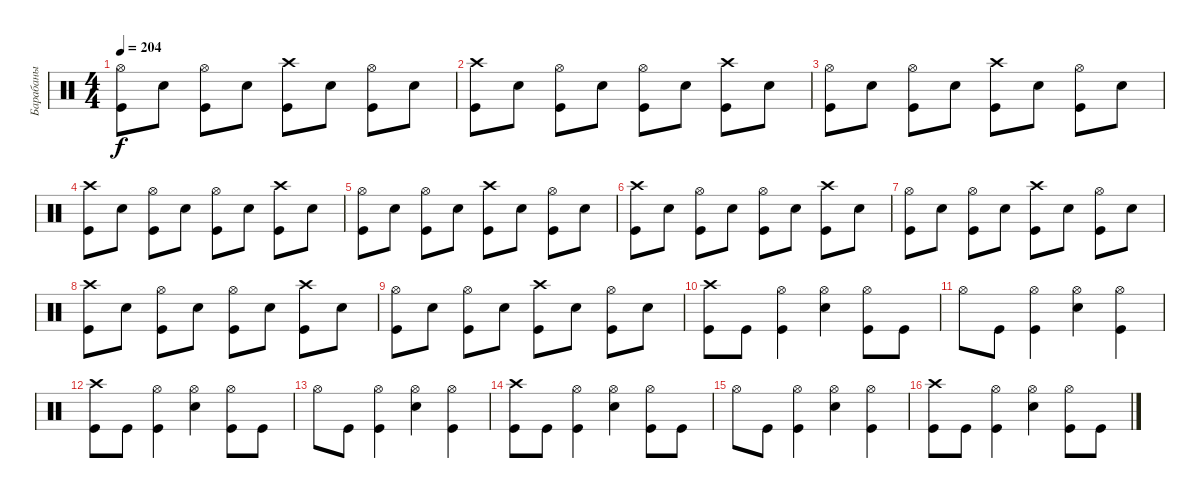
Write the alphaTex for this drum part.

\track ("Барабаны" "Барабаны") {instrument percussion}
\staff {score}
\articulation defaults
\ts (4 4)
\tempo 204
\clef neutral
\ks c
("Hi-Hat (open)" "Kick (hit)").8{dy f} "Electric Snare (hit)".8 ("Hi-Hat (open)" "Kick (hit)").8 "Electric Snare (hit)".8 ("Crash high (hit)" "Kick (hit)").8 "Electric Snare (hit)".8 ("Hi-Hat (open)" "Kick (hit)").8 "Electric Snare (hit)".8 |
("Crash high (hit)" "Kick (hit)").8 "Electric Snare (hit)".8 ("Hi-Hat (open)" "Kick (hit)").8 "Electric Snare (hit)".8 ("Hi-Hat (open)" "Kick (hit)").8 "Electric Snare (hit)".8 ("Crash high (hit)" "Kick (hit)").8 "Electric Snare (hit)".8 |
("Hi-Hat (open)" "Kick (hit)").8 "Electric Snare (hit)".8 ("Hi-Hat (open)" "Kick (hit)").8 "Electric Snare (hit)".8 ("Crash high (hit)" "Kick (hit)").8 "Electric Snare (hit)".8 ("Hi-Hat (open)" "Kick (hit)").8 "Electric Snare (hit)".8 |
("Crash high (hit)" "Kick (hit)").8 "Electric Snare (hit)".8 ("Hi-Hat (open)" "Kick (hit)").8 "Electric Snare (hit)".8 ("Hi-Hat (open)" "Kick (hit)").8 "Electric Snare (hit)".8 ("Crash high (hit)" "Kick (hit)").8 "Electric Snare (hit)".8 |
("Hi-Hat (open)" "Kick (hit)").8 "Electric Snare (hit)".8 ("Hi-Hat (open)" "Kick (hit)").8 "Electric Snare (hit)".8 ("Crash high (hit)" "Kick (hit)").8 "Electric Snare (hit)".8 ("Hi-Hat (open)" "Kick (hit)").8 "Electric Snare (hit)".8 |
("Crash high (hit)" "Kick (hit)").8 "Electric Snare (hit)".8 ("Hi-Hat (open)" "Kick (hit)").8 "Electric Snare (hit)".8 ("Hi-Hat (open)" "Kick (hit)").8 "Electric Snare (hit)".8 ("Crash high (hit)" "Kick (hit)").8 "Electric Snare (hit)".8 |
("Hi-Hat (open)" "Kick (hit)").8 "Electric Snare (hit)".8 ("Hi-Hat (open)" "Kick (hit)").8 "Electric Snare (hit)".8 ("Crash high (hit)" "Kick (hit)").8 "Electric Snare (hit)".8 ("Hi-Hat (open)" "Kick (hit)").8 "Electric Snare (hit)".8 |
("Crash high (hit)" "Kick (hit)").8 "Electric Snare (hit)".8 ("Hi-Hat (open)" "Kick (hit)").8 "Electric Snare (hit)".8 ("Hi-Hat (open)" "Kick (hit)").8 "Electric Snare (hit)".8 ("Crash high (hit)" "Kick (hit)").8 "Electric Snare (hit)".8 |
("Hi-Hat (open)" "Kick (hit)").8 "Electric Snare (hit)".8 ("Hi-Hat (open)" "Kick (hit)").8 "Electric Snare (hit)".8 ("Crash high (hit)" "Kick (hit)").8 "Electric Snare (hit)".8 ("Hi-Hat (open)" "Kick (hit)").8 "Electric Snare (hit)".8 |
("Crash high (hit)" "Kick (hit)").8 "Kick (hit)".8 ("Hi-Hat (open)" "Kick (hit)").4 ("Hi-Hat (open)" "Electric Snare (hit)").4 ("Hi-Hat (open)" "Kick (hit)").8 "Kick (hit)".8 |
"Hi-Hat (open)".8 "Kick (hit)".8 ("Hi-Hat (open)" "Kick (hit)").4 ("Hi-Hat (open)" "Electric Snare (hit)").4 ("Hi-Hat (open)" "Kick (hit)").4 |
("Crash high (hit)" "Kick (hit)").8 "Kick (hit)".8 ("Hi-Hat (open)" "Kick (hit)").4 ("Hi-Hat (open)" "Electric Snare (hit)").4 ("Hi-Hat (open)" "Kick (hit)").8 "Kick (hit)".8 |
"Hi-Hat (open)".8 "Kick (hit)".8 ("Hi-Hat (open)" "Kick (hit)").4 ("Hi-Hat (open)" "Electric Snare (hit)").4 ("Hi-Hat (open)" "Kick (hit)").4 |
("Crash high (hit)" "Kick (hit)").8 "Kick (hit)".8 ("Hi-Hat (open)" "Kick (hit)").4 ("Hi-Hat (open)" "Electric Snare (hit)").4 ("Hi-Hat (open)" "Kick (hit)").8 "Kick (hit)".8 |
"Hi-Hat (open)".8 "Kick (hit)".8 ("Hi-Hat (open)" "Kick (hit)").4 ("Hi-Hat (open)" "Electric Snare (hit)").4 ("Hi-Hat (open)" "Kick (hit)").4 |
("Crash high (hit)" "Kick (hit)").8 "Kick (hit)".8 ("Hi-Hat (open)" "Kick (hit)").4 ("Hi-Hat (open)" "Electric Snare (hit)").4 ("Hi-Hat (open)" "Kick (hit)").8 "Kick (hit)".8
